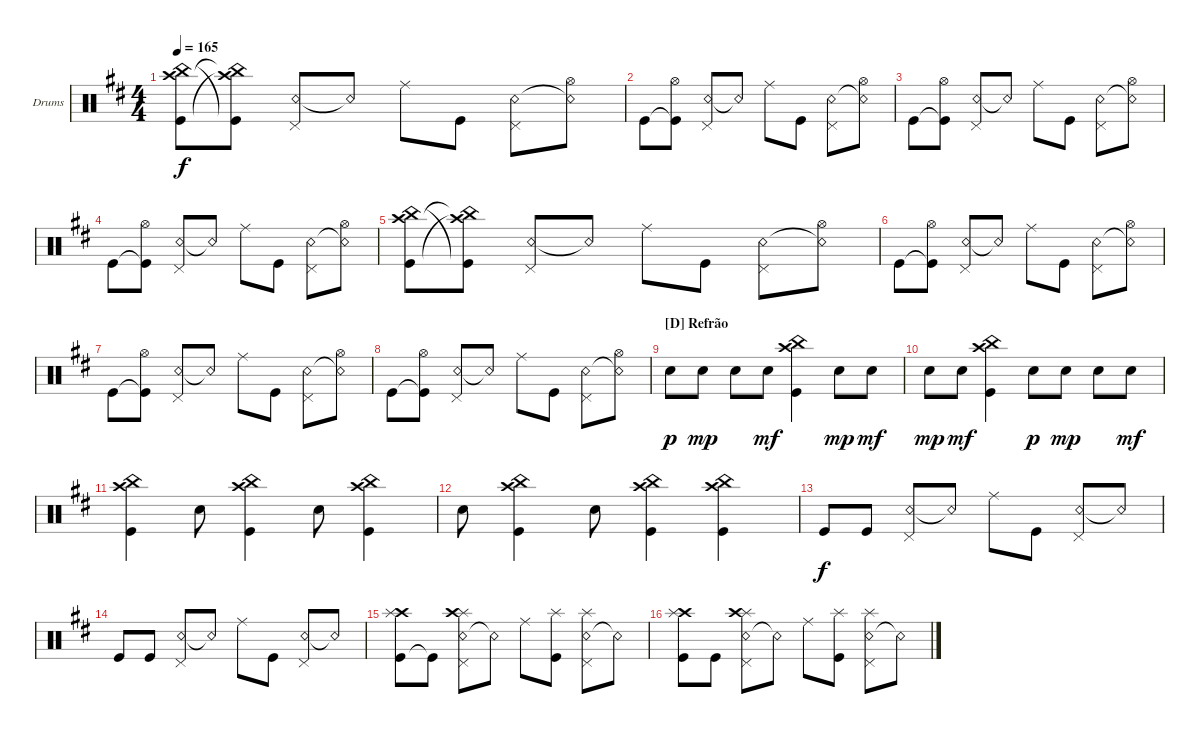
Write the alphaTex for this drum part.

\defaultSystemsLayout 4
\bracketExtendMode groupsimilarinstruments
\firstSystemTrackNameOrientation horizontal
\otherSystemsTrackNameOrientation horizontal
\track ("Bateria" "Drums") {multiBarRest instrument percussion}
\staff {score}
\articulation defaults
\ts (4 4)
\tempo 165
\clef neutral
\ks d
("China (hit)" "Crash high (hit)" "Kick (hit)").8{dy f} ("Kick (hit)"{t} "China (hit)"{t} "Crash high (hit)"{t}).8 ("Snare (rim shot)" "Pedal Hi-Hat (hit)").8 "Snare (rim shot)"{t}.8 "Ride (middle)".8 "Kick (hit)".8 ("Snare (rim shot)" "Pedal Hi-Hat (hit)").8 ("Snare (rim shot)"{t} "Hi-Hat (open)").8 |
"Kick (hit)".8 ("Kick (hit)"{t} "Hi-Hat (open)").8 ("Snare (rim shot)" "Pedal Hi-Hat (hit)").8 "Snare (rim shot)"{t}.8 "Ride (middle)".8 "Kick (hit)".8 ("Snare (rim shot)" "Pedal Hi-Hat (hit)").8 ("Snare (rim shot)"{t} "Hi-Hat (open)").8 |
"Kick (hit)".8 ("Kick (hit)"{t} "Hi-Hat (open)").8 ("Snare (rim shot)" "Pedal Hi-Hat (hit)").8 "Snare (rim shot)"{t}.8 "Ride (middle)".8 "Kick (hit)".8 ("Snare (rim shot)" "Pedal Hi-Hat (hit)").8 ("Snare (rim shot)"{t} "Hi-Hat (open)").8 |
"Kick (hit)".8 ("Kick (hit)"{t} "Hi-Hat (open)").8 ("Snare (rim shot)" "Pedal Hi-Hat (hit)").8 "Snare (rim shot)"{t}.8 "Ride (middle)".8 "Kick (hit)".8 ("Snare (rim shot)" "Pedal Hi-Hat (hit)").8 ("Snare (rim shot)"{t} "Hi-Hat (open)").8 |
("China (hit)" "Crash high (hit)" "Kick (hit)").8 ("Kick (hit)"{t} "China (hit)"{t} "Crash high (hit)"{t}).8 ("Snare (rim shot)" "Pedal Hi-Hat (hit)").8 "Snare (rim shot)"{t}.8 "Ride (middle)".8 "Kick (hit)".8 ("Snare (rim shot)" "Pedal Hi-Hat (hit)").8 ("Snare (rim shot)"{t} "Hi-Hat (open)").8 |
"Kick (hit)".8 ("Kick (hit)"{t} "Hi-Hat (open)").8 ("Snare (rim shot)" "Pedal Hi-Hat (hit)").8 "Snare (rim shot)"{t}.8 "Ride (middle)".8 "Kick (hit)".8 ("Snare (rim shot)" "Pedal Hi-Hat (hit)").8 ("Snare (rim shot)"{t} "Hi-Hat (open)").8 |
"Kick (hit)".8 ("Kick (hit)"{t} "Hi-Hat (open)").8 ("Snare (rim shot)" "Pedal Hi-Hat (hit)").8 "Snare (rim shot)"{t}.8 "Ride (middle)".8 "Kick (hit)".8 ("Snare (rim shot)" "Pedal Hi-Hat (hit)").8 ("Snare (rim shot)"{t} "Hi-Hat (open)").8 |
"Kick (hit)".8 ("Kick (hit)"{t} "Hi-Hat (open)").8 ("Snare (rim shot)" "Pedal Hi-Hat (hit)").8 "Snare (rim shot)"{t}.8 "Ride (middle)".8 "Kick (hit)".8 ("Snare (rim shot)" "Pedal Hi-Hat (hit)").8 ("Snare (rim shot)"{t} "Hi-Hat (open)").8 |
\section ("D" "Refrão")
"Snare (hit) 2".8{dy p} "Snare (hit) 2".8{dy mp} "Snare (hit) 2".8 "Snare (hit) 2".8{dy mf} ("Crash high (hit)" "China (hit)" "Kick (hit)").4 "Snare (hit) 2".8{dy mp} "Snare (hit) 2".8{dy mf} |
"Snare (hit) 2".8{dy mp} "Snare (hit) 2".8{dy mf} ("Crash high (hit)" "China (hit)" "Kick (hit)").4 "Snare (hit) 2".8{dy p} "Snare (hit) 2".8{dy mp} "Snare (hit) 2".8 "Snare (hit) 2".8{dy mf} |
("Crash high (hit)" "China (hit)" "Kick (hit)").4 "Snare (hit) 2".8 ("Crash high (hit)" "China (hit)" "Kick (hit)").4 "Snare (hit) 2".8 ("Crash high (hit)" "China (hit)" "Kick (hit)").4 |
"Snare (hit) 2".8 ("Crash high (hit)" "China (hit)" "Kick (hit)").4 "Snare (hit) 2".8 ("Crash high (hit)" "China (hit)" "Kick (hit)").4 ("Crash high (hit)" "China (hit)" "Kick (hit)").4 |
"Kick (hit)".8{dy f} "Kick (hit)".8 ("Snare (rim shot)" "Pedal Hi-Hat (hit)").8 "Snare (rim shot)"{t}.8 "Ride (middle)".8 "Kick (hit)".8 ("Snare (rim shot)" "Pedal Hi-Hat (hit)").8 "Snare (rim shot)"{t}.8 |
"Kick (hit)".8 "Kick (hit)".8 ("Snare (rim shot)" "Pedal Hi-Hat (hit)").8 "Snare (rim shot)"{t}.8 "Ride (middle)".8 "Kick (hit)".8 ("Snare (rim shot)" "Pedal Hi-Hat (hit)").8 "Snare (rim shot)"{t}.8 |
("Kick (hit)" "Crash high (hit)" "Splash (hit)").8 "Kick (hit)"{t}.8 ("Snare (rim shot)" "Pedal Hi-Hat (hit)" "Splash (hit)" "Crash high (hit)").8 "Snare (rim shot)"{t}.8 "Ride (middle)".8 ("Kick (hit)" "Splash (hit)").8 ("Snare (rim shot)" "Pedal Hi-Hat (hit)" "Splash (hit)").8 "Snare (rim shot)"{t}.8 |
("Kick (hit)" "Crash high (hit)" "Splash (hit)").8 "Kick (hit)".8 ("Snare (rim shot)" "Pedal Hi-Hat (hit)" "Splash (hit)" "Crash high (hit)").8 "Snare (rim shot)"{t}.8 "Ride (middle)".8 ("Kick (hit)" "Splash (hit)").8 ("Snare (rim shot)" "Pedal Hi-Hat (hit)" "Splash (hit)").8 "Snare (rim shot)"{t}.8
